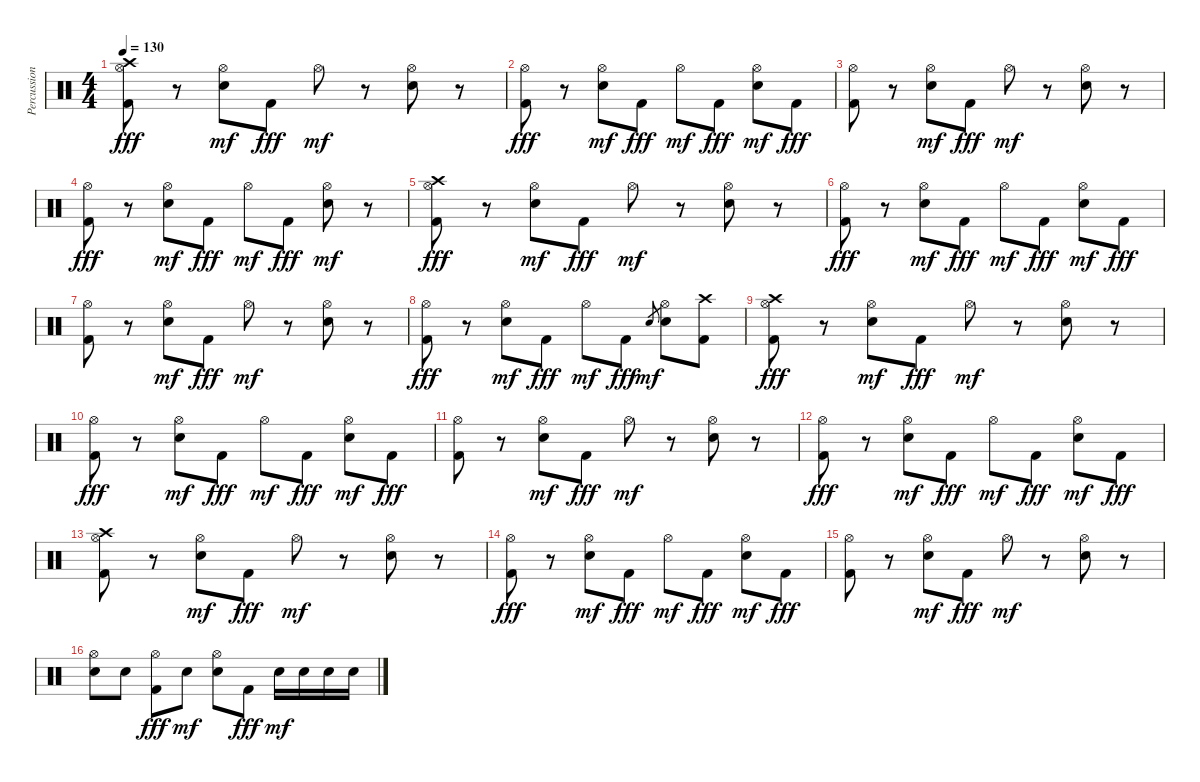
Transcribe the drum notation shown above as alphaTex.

\track ("Percussion" "Percussion") {instrument percussion}
\staff {score}
\articulation defaults
\ts (4 4)
\tempo 130
\clef neutral
\ks c
("Hi-Hat (open)" "Kick (hit) 2" "Crash high (hit)").8{dy fff} r.8 ("Hi-Hat (open)" "Electric Snare (hit)").8{dy mf} "Kick (hit) 2".8{dy fff} "Hi-Hat (open)".8{dy mf} r.8 ("Hi-Hat (open)" "Electric Snare (hit)").8 r.8 |
("Hi-Hat (open)" "Kick (hit) 2").8{dy fff} r.8 ("Hi-Hat (open)" "Electric Snare (hit)").8{dy mf} "Kick (hit) 2".8{dy fff} "Hi-Hat (open)".8{dy mf} "Kick (hit) 2".8{dy fff} ("Hi-Hat (open)" "Electric Snare (hit)").8{dy mf} "Kick (hit) 2".8{dy fff} |
("Hi-Hat (open)" "Kick (hit) 2").8 r.8 ("Hi-Hat (open)" "Electric Snare (hit)").8{dy mf} "Kick (hit) 2".8{dy fff} "Hi-Hat (open)".8{dy mf} r.8 ("Hi-Hat (open)" "Electric Snare (hit)").8 r.8 |
("Hi-Hat (open)" "Kick (hit) 2").8{dy fff} r.8 ("Hi-Hat (open)" "Electric Snare (hit)").8{dy mf} "Kick (hit) 2".8{dy fff} "Hi-Hat (open)".8{dy mf} "Kick (hit) 2".8{dy fff} ("Hi-Hat (open)" "Electric Snare (hit)").8{dy mf} r.8 |
("Hi-Hat (open)" "Kick (hit) 2" "Crash high (hit)").8{dy fff} r.8 ("Hi-Hat (open)" "Electric Snare (hit)").8{dy mf} "Kick (hit) 2".8{dy fff} "Hi-Hat (open)".8{dy mf} r.8 ("Hi-Hat (open)" "Electric Snare (hit)").8 r.8 |
("Hi-Hat (open)" "Kick (hit) 2").8{dy fff} r.8 ("Hi-Hat (open)" "Electric Snare (hit)").8{dy mf} "Kick (hit) 2".8{dy fff} "Hi-Hat (open)".8{dy mf} "Kick (hit) 2".8{dy fff} ("Hi-Hat (open)" "Electric Snare (hit)").8{dy mf} "Kick (hit) 2".8{dy fff} |
("Hi-Hat (open)" "Kick (hit) 2").8 r.8 ("Hi-Hat (open)" "Electric Snare (hit)").8{dy mf} "Kick (hit) 2".8{dy fff} "Hi-Hat (open)".8{dy mf} r.8 ("Hi-Hat (open)" "Electric Snare (hit)").8 r.8 |
("Hi-Hat (open)" "Kick (hit) 2").8{dy fff} r.8 ("Hi-Hat (open)" "Electric Snare (hit)").8{dy mf} "Kick (hit) 2".8{dy fff} "Hi-Hat (open)".8{dy mf} "Kick (hit) 2".8{dy fff} "Electric Snare (hit)".8{gr dy mf} ("Hi-Hat (open)" "Electric Snare (hit)").8 ("Kick (hit) 2" "Crash high (hit)").8 |
("Hi-Hat (open)" "Kick (hit) 2" "Crash high (hit)").8{dy fff} r.8 ("Hi-Hat (open)" "Electric Snare (hit)").8{dy mf} "Kick (hit) 2".8{dy fff} "Hi-Hat (open)".8{dy mf} r.8 ("Hi-Hat (open)" "Electric Snare (hit)").8 r.8 |
("Hi-Hat (open)" "Kick (hit) 2").8{dy fff} r.8 ("Hi-Hat (open)" "Electric Snare (hit)").8{dy mf} "Kick (hit) 2".8{dy fff} "Hi-Hat (open)".8{dy mf} "Kick (hit) 2".8{dy fff} ("Hi-Hat (open)" "Electric Snare (hit)").8{dy mf} "Kick (hit) 2".8{dy fff} |
("Hi-Hat (open)" "Kick (hit) 2").8 r.8 ("Hi-Hat (open)" "Electric Snare (hit)").8{dy mf} "Kick (hit) 2".8{dy fff} "Hi-Hat (open)".8{dy mf} r.8 ("Hi-Hat (open)" "Electric Snare (hit)").8 r.8 |
("Hi-Hat (open)" "Kick (hit) 2").8{dy fff} r.8 ("Hi-Hat (open)" "Electric Snare (hit)").8{dy mf} "Kick (hit) 2".8{dy fff} "Hi-Hat (open)".8{dy mf} "Kick (hit) 2".8{dy fff} ("Hi-Hat (open)" "Electric Snare (hit)").8{dy mf} "Kick (hit) 2".8{dy fff} |
("Hi-Hat (open)" "Kick (hit) 2" "Crash high (hit)").8 r.8 ("Hi-Hat (open)" "Electric Snare (hit)").8{dy mf} "Kick (hit) 2".8{dy fff} "Hi-Hat (open)".8{dy mf} r.8 ("Hi-Hat (open)" "Electric Snare (hit)").8 r.8 |
("Hi-Hat (open)" "Kick (hit) 2").8{dy fff} r.8 ("Hi-Hat (open)" "Electric Snare (hit)").8{dy mf} "Kick (hit) 2".8{dy fff} "Hi-Hat (open)".8{dy mf} "Kick (hit) 2".8{dy fff} ("Hi-Hat (open)" "Electric Snare (hit)").8{dy mf} "Kick (hit) 2".8{dy fff} |
("Hi-Hat (open)" "Kick (hit) 2").8 r.8 ("Hi-Hat (open)" "Electric Snare (hit)").8{dy mf} "Kick (hit) 2".8{dy fff} "Hi-Hat (open)".8{dy mf} r.8 ("Hi-Hat (open)" "Electric Snare (hit)").8 r.8 |
("Hi-Hat (open)" "Electric Snare (hit)").8 "Electric Snare (hit)".8 ("Hi-Hat (open)" "Kick (hit) 2").8{dy fff} "Electric Snare (hit)".8{dy mf} ("Hi-Hat (open)" "Electric Snare (hit)").8 "Kick (hit) 2".8{dy fff} "Electric Snare (hit)".16{dy mf} "Electric Snare (hit)".16 "Electric Snare (hit)".16 "Electric Snare (hit)".16
